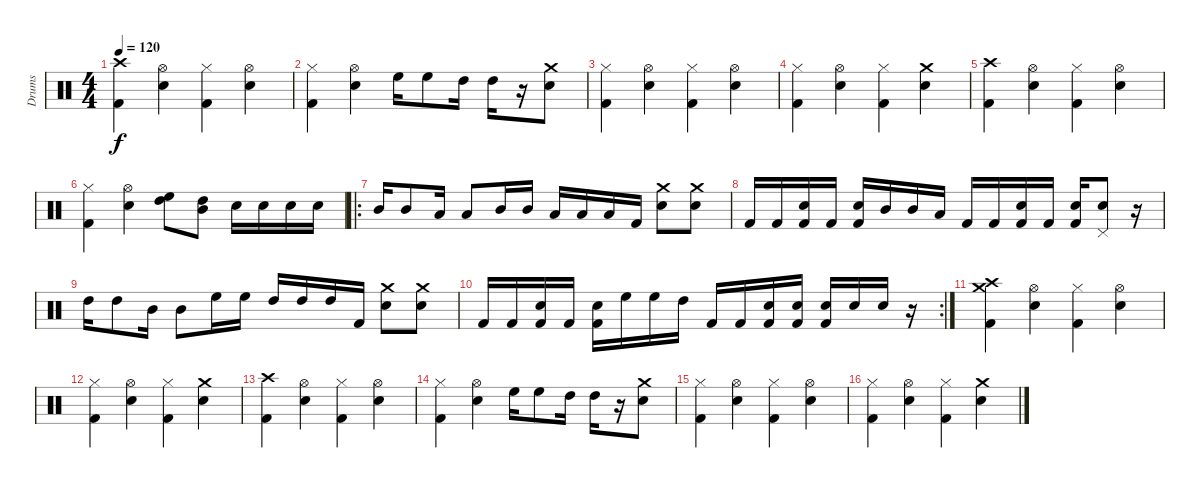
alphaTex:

\track ("Drums" "Drums") {instrument percussion}
\staff {score}
\articulation defaults
\ts (4 4)
\tempo 120
\clef neutral
\ks c
("Kick (hit) 2" "Crash high (hit)").4{dy f} ("Electric Snare (hit)" "Hi-Hat (open)").4 ("Kick (hit) 2" "Hi-Hat (closed)").4 ("Electric Snare (hit)" "Hi-Hat (open)").4 |
("Kick (hit) 2" "Hi-Hat (closed)").4 ("Electric Snare (hit)" "Hi-Hat (open)").4 "High Floor Tom (hit)".16 "High Floor Tom (hit)".8 "High Tom (hit)".16 "High Tom (hit)".16 r.16 ("Electric Snare (hit)" "Crash medium (hit)").8 |
("Kick (hit) 2" "Hi-Hat (closed)").4 ("Electric Snare (hit)" "Hi-Hat (open)").4 ("Kick (hit) 2" "Hi-Hat (closed)").4 ("Electric Snare (hit)" "Hi-Hat (open)").4 |
("Kick (hit) 2" "Hi-Hat (closed)").4 ("Electric Snare (hit)" "Hi-Hat (open)").4 ("Kick (hit) 2" "Hi-Hat (closed)").4 ("Electric Snare (hit)" "Crash medium (hit)").4 |
("Kick (hit) 2" "Crash high (hit)").4 ("Electric Snare (hit)" "Hi-Hat (open)").4 ("Kick (hit) 2" "Hi-Hat (closed)").4 ("Electric Snare (hit)" "Hi-Hat (open)").4 |
("Kick (hit) 2" "Hi-Hat (closed)").4 ("Electric Snare (hit)" "Hi-Hat (open)").4 ("High Tom (hit)" "High Floor Tom (hit)").8 ("Mid Tom (hit)" "High Tom (hit)").8 "Electric Snare (hit)".16 "Electric Snare (hit)".16 "Electric Snare (hit)".16 "Electric Snare (hit)".16 |
\ro "Mid Tom (hit)".16 "Mid Tom (hit)".8 "Low Tom (hit)".16 "Low Tom (hit)".8 "Mid Tom (hit)".16 "Mid Tom (hit)".16 "Low Tom (hit)".16 "Low Tom (hit)".16 "Low Tom (hit)".16 "Kick (hit) 2".16
("Electric Snare (hit)" "Crash medium (hit)").8 ("Electric Snare (hit)" "Crash medium (hit)").8 |
"Kick (hit) 2".16 "Kick (hit) 2".16 ("Kick (hit) 2" "Electric Snare (hit)").16 "Kick (hit) 2".16 ("Kick (hit) 2" "Electric Snare (hit)").16 "Mid Tom (hit)".16 "Mid Tom (hit)".16 "Low Tom (hit)".16 "Kick (hit) 2".16 "Kick (hit) 2".16 ("Kick (hit) 2" "Electric Snare (hit)").16 "Kick (hit) 2".16 ("Kick (hit) 2" "Electric Snare (hit)").16 ("Electric Snare (hit)" "Pedal Hi-Hat (hit)").8 r.16 |
"High Tom (hit)".16 "High Tom (hit)".8 "Mid Tom (hit)".16 "Mid Tom (hit)".8 "High Floor Tom (hit)".16 "High Floor Tom (hit)".16 "High Tom (hit)".16 "High Tom (hit)".16 "High Tom (hit)".16 "Kick (hit) 2".16 ("Electric Snare (hit)" "Crash medium (hit)").8 ("Electric Snare (hit)" "Crash medium (hit)").8 |
\rc 2 "Kick (hit) 2".16 "Kick (hit) 2".16
("Kick (hit) 2" "Electric Snare (hit)").16 "Kick (hit) 2".16 ("Kick (hit) 2" "Electric Snare (hit)").16 "High Floor Tom (hit)".16 "High Floor Tom (hit)".16 "High Tom (hit)".16 "Kick (hit) 2".16 "Kick (hit) 2".16 ("Kick (hit) 2" "Electric Snare (hit)").16 ("Kick (hit) 2" "Electric Snare (hit)").16 ("Kick (hit) 2" "Electric Snare (hit)").16 "Electric Snare (hit)".16 "Electric Snare (hit)".16 r.16 |
("Kick (hit) 2" "Crash medium (hit)" "Crash high (hit)").4 ("Electric Snare (hit)" "Hi-Hat (open)").4 ("Kick (hit) 2" "Hi-Hat (closed)").4 ("Electric Snare (hit)" "Hi-Hat (open)").4 |
("Kick (hit) 2" "Hi-Hat (closed)").4 ("Electric Snare (hit)" "Hi-Hat (open)").4 ("Kick (hit) 2" "Hi-Hat (closed)").4 ("Electric Snare (hit)" "Crash medium (hit)").4 |
("Kick (hit) 2" "Crash high (hit)").4 ("Electric Snare (hit)" "Hi-Hat (open)").4 ("Kick (hit) 2" "Hi-Hat (closed)").4 ("Electric Snare (hit)" "Hi-Hat (open)").4 |
("Kick (hit) 2" "Hi-Hat (closed)").4 ("Electric Snare (hit)" "Hi-Hat (open)").4 "High Floor Tom (hit)".16 "High Floor Tom (hit)".8 "High Tom (hit)".16 "High Tom (hit)".16 r.16 ("Electric Snare (hit)" "Crash medium (hit)").8 |
("Kick (hit) 2" "Hi-Hat (closed)").4 ("Electric Snare (hit)" "Hi-Hat (open)").4 ("Kick (hit) 2" "Hi-Hat (closed)").4 ("Electric Snare (hit)" "Hi-Hat (open)").4 |
("Kick (hit) 2" "Hi-Hat (closed)").4 ("Electric Snare (hit)" "Hi-Hat (open)").4 ("Kick (hit) 2" "Hi-Hat (closed)").4 ("Electric Snare (hit)" "Crash medium (hit)").4
